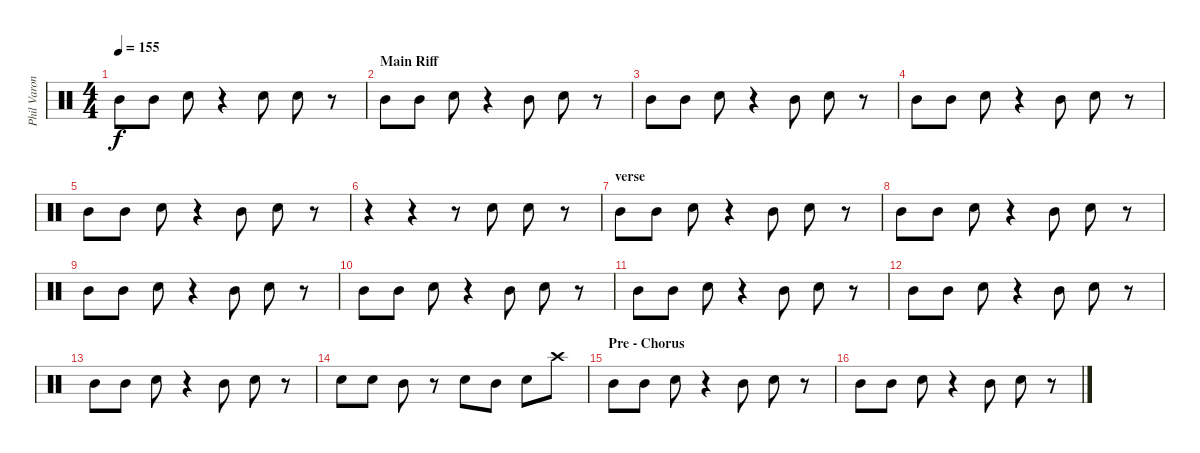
\track ("Phil Varone" "Phil Varon") {instrument percussion}
\staff {score}
\articulation defaults
\ts (4 4)
\tempo 155
\clef neutral
\ks c "Mid Tom (hit)".8{dy f} "Mid Tom (hit)".8 "Snare (hit) 2".8
r.4 "Snare (hit) 2".8 "Snare (hit) 2".8 r.8 |
\section ("" "Main Riff")
"Mid Tom (hit)".8 "Mid Tom (hit)".8 "Snare (hit) 2".8 r.4 "Mid Tom (hit)".8 "Snare (hit) 2".8 r.8 |
"Mid Tom (hit)".8 "Mid Tom (hit)".8 "Snare (hit) 2".8 r.4 "Mid Tom (hit)".8 "Snare (hit) 2".8 r.8 |
"Mid Tom (hit)".8 "Mid Tom (hit)".8 "Snare (hit) 2".8 r.4 "Mid Tom (hit)".8 "Snare (hit) 2".8 r.8 |
"Mid Tom (hit)".8 "Mid Tom (hit)".8 "Snare (hit) 2".8 r.4 "Mid Tom (hit)".8 "Snare (hit) 2".8 r.8 |
r.4 r.4 r.8 "Snare (hit) 2".8 "Snare (hit) 2".8 r.8 |
\section ("" "verse")
"Mid Tom (hit)".8 "Mid Tom (hit)".8 "Snare (hit) 2".8 r.4 "Mid Tom (hit)".8 "Snare (hit) 2".8 r.8 |
"Mid Tom (hit)".8 "Mid Tom (hit)".8 "Snare (hit) 2".8 r.4 "Mid Tom (hit)".8 "Snare (hit) 2".8 r.8 |
"Mid Tom (hit)".8 "Mid Tom (hit)".8 "Snare (hit) 2".8 r.4 "Mid Tom (hit)".8 "Snare (hit) 2".8 r.8 |
"Mid Tom (hit)".8 "Mid Tom (hit)".8 "Snare (hit) 2".8 r.4 "Mid Tom (hit)".8 "Snare (hit) 2".8 r.8 |
"Mid Tom (hit)".8 "Mid Tom (hit)".8 "Snare (hit) 2".8 r.4 "Mid Tom (hit)".8 "Snare (hit) 2".8 r.8 |
"Mid Tom (hit)".8 "Mid Tom (hit)".8 "Snare (hit) 2".8 r.4 "Mid Tom (hit)".8 "Snare (hit) 2".8 r.8 |
"Mid Tom (hit)".8 "Mid Tom (hit)".8 "Snare (hit) 2".8 r.4 "Mid Tom (hit)".8 "Snare (hit) 2".8 r.8 |
"Snare (hit) 2".8 "Snare (hit) 2".8 "Mid Tom (hit)".8 r.8 "Snare (hit) 2".8 "Mid Tom (hit)".8 "Snare (hit) 2".8 "Crash high (hit)".8 |
\section ("" "Pre - Chorus")
"Mid Tom (hit)".8 "Mid Tom (hit)".8 "Snare (hit) 2".8 r.4 "Mid Tom (hit)".8 "Snare (hit) 2".8 r.8 |
"Mid Tom (hit)".8 "Mid Tom (hit)".8 "Snare (hit) 2".8 r.4 "Mid Tom (hit)".8 "Snare (hit) 2".8 r.8
